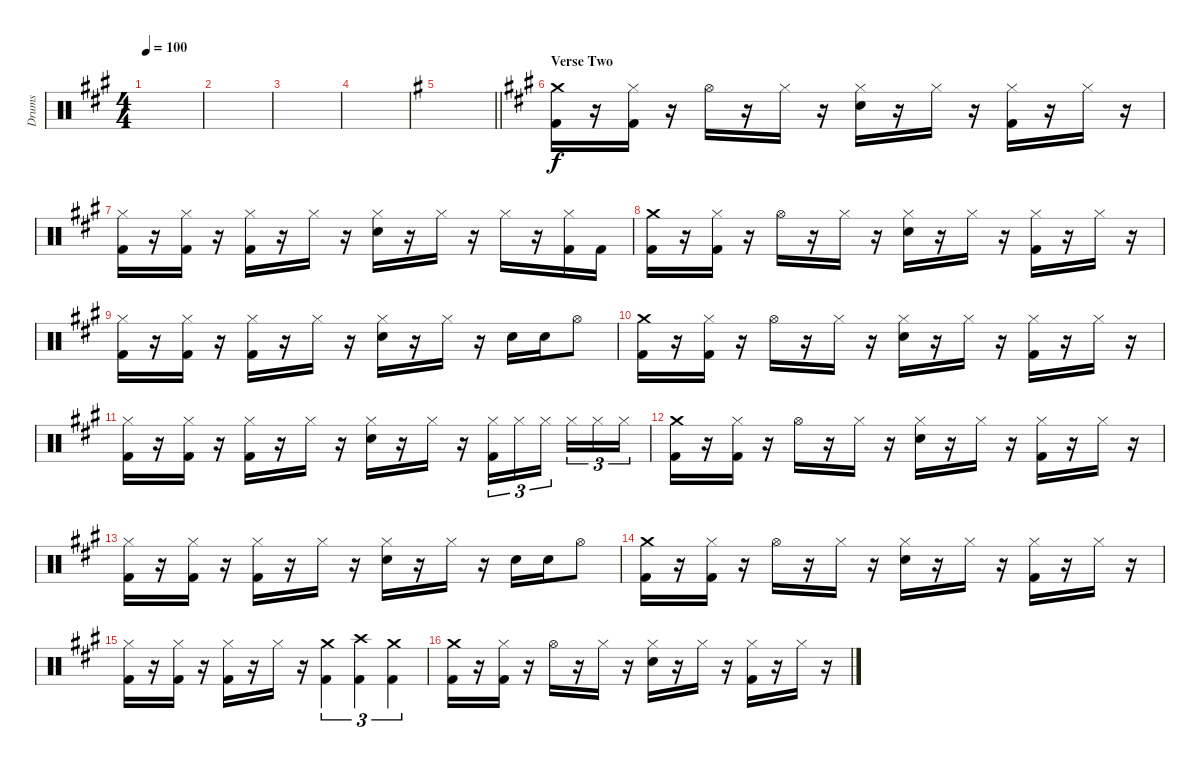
\track ("Drums" "Drums") {instrument percussion}
\staff {score}
\articulation defaults
\ts (4 4)
\tempo 100
\clef neutral
\ks a
|
|
|
|
\barLineRight lightlight
\ks g
|
\section ("" "Verse Two")
\ks a
("Crash medium (hit)" "Kick (hit) 2").16 r.16 ("Hi-Hat (closed)" "Kick (hit) 2").16 r.16 "Hi-Hat (open)".16 r.16 "Hi-Hat (closed)".16 r.16 ("Hi-Hat (closed)" "Snare (hit) 2").16 r.16 "Hi-Hat (closed)".16 r.16 ("Hi-Hat (closed)" "Kick (hit) 2").16 r.16 "Hi-Hat (closed)".16 r.16 |
("Hi-Hat (closed)" "Kick (hit) 2").16 r.16 ("Hi-Hat (closed)" "Kick (hit) 2").16 r.16 ("Hi-Hat (closed)" "Kick (hit) 2").16 r.16 "Hi-Hat (closed)".16 r.16 ("Hi-Hat (closed)" "Snare (hit) 2").16 r.16 "Hi-Hat (closed)".16 r.16 "Hi-Hat (closed)".16 r.16 ("Hi-Hat (closed)" "Kick (hit) 2").16 "Kick (hit) 2".16 |
("Crash medium (hit)" "Kick (hit) 2").16 r.16 ("Hi-Hat (closed)" "Kick (hit) 2").16 r.16 "Hi-Hat (open)".16 r.16 "Hi-Hat (closed)".16 r.16 ("Hi-Hat (closed)" "Snare (hit) 2").16 r.16 "Hi-Hat (closed)".16 r.16 ("Hi-Hat (closed)" "Kick (hit) 2").16 r.16 "Hi-Hat (closed)".16 r.16 |
("Hi-Hat (closed)" "Kick (hit) 2").16 r.16 ("Hi-Hat (closed)" "Kick (hit) 2").16 r.16 ("Hi-Hat (closed)" "Kick (hit) 2").16 r.16 "Hi-Hat (closed)".16 r.16 ("Hi-Hat (closed)" "Snare (hit) 2").16 r.16 "Hi-Hat (closed)".16 r.16 "Snare (hit) 2".16 "Snare (hit) 2".16 "Hi-Hat (open)".8 |
("Crash medium (hit)" "Kick (hit) 2").16 r.16 ("Hi-Hat (closed)" "Kick (hit) 2").16 r.16 "Hi-Hat (open)".16 r.16 "Hi-Hat (closed)".16 r.16 ("Hi-Hat (closed)" "Snare (hit) 2").16 r.16 "Hi-Hat (closed)".16 r.16 ("Hi-Hat (closed)" "Kick (hit) 2").16 r.16 "Hi-Hat (closed)".16 r.16 |
("Hi-Hat (closed)" "Kick (hit) 2").16 r.16 ("Hi-Hat (closed)" "Kick (hit) 2").16 r.16 ("Hi-Hat (closed)" "Kick (hit) 2").16 r.16 "Hi-Hat (closed)".16 r.16 ("Hi-Hat (closed)" "Snare (hit) 2").16 r.16 "Hi-Hat (closed)".16 r.16 ("Hi-Hat (closed)" "Kick (hit) 2").16{tu (3 2)} "Hi-Hat (closed)".16{tu (3 2)} "Hi-Hat (closed)".16{tu (3 2) beam splitsecondary} "Hi-Hat (closed)".16{tu (3 2)} "Hi-Hat (closed)".16{tu (3 2)} "Hi-Hat (closed)".16{tu (3 2)} |
("Crash medium (hit)" "Kick (hit) 2").16 r.16 ("Hi-Hat (closed)" "Kick (hit) 2").16 r.16 "Hi-Hat (open)".16 r.16 "Hi-Hat (closed)".16 r.16 ("Hi-Hat (closed)" "Snare (hit) 2").16 r.16 "Hi-Hat (closed)".16 r.16 ("Hi-Hat (closed)" "Kick (hit) 2").16 r.16 "Hi-Hat (closed)".16 r.16 |
("Hi-Hat (closed)" "Kick (hit) 2").16 r.16 ("Hi-Hat (closed)" "Kick (hit) 2").16 r.16 ("Hi-Hat (closed)" "Kick (hit) 2").16 r.16 "Hi-Hat (closed)".16 r.16 ("Hi-Hat (closed)" "Snare (hit) 2").16 r.16 "Hi-Hat (closed)".16 r.16 "Snare (hit) 2".16 "Snare (hit) 2".16 "Hi-Hat (open)".8 |
("Crash medium (hit)" "Kick (hit) 2").16 r.16 ("Hi-Hat (closed)" "Kick (hit) 2").16 r.16 "Hi-Hat (open)".16 r.16 "Hi-Hat (closed)".16 r.16 ("Hi-Hat (closed)" "Snare (hit) 2").16 r.16 "Hi-Hat (closed)".16 r.16 ("Hi-Hat (closed)" "Kick (hit) 2").16 r.16 "Hi-Hat (closed)".16 r.16 |
("Hi-Hat (closed)" "Kick (hit) 2").16 r.16 ("Hi-Hat (closed)" "Kick (hit) 2").16 r.16 ("Hi-Hat (closed)" "Kick (hit) 2").16 r.16 "Hi-Hat (closed)".16 r.16 ("Crash medium (hit)" "Kick (hit) 2").4{tu (3 2)} ("Crash high (hit)" "Kick (hit) 2").4{tu (3 2)} ("Crash medium (hit)" "Kick (hit) 2").4{tu (3 2)} |
("Crash medium (hit)" "Kick (hit) 2").16 r.16 ("Hi-Hat (closed)" "Kick (hit) 2").16 r.16 "Hi-Hat (open)".16 r.16 "Hi-Hat (closed)".16 r.16 ("Hi-Hat (closed)" "Snare (hit) 2").16 r.16 "Hi-Hat (closed)".16 r.16 ("Hi-Hat (closed)" "Kick (hit) 2").16 r.16 "Hi-Hat (closed)".16 r.16
